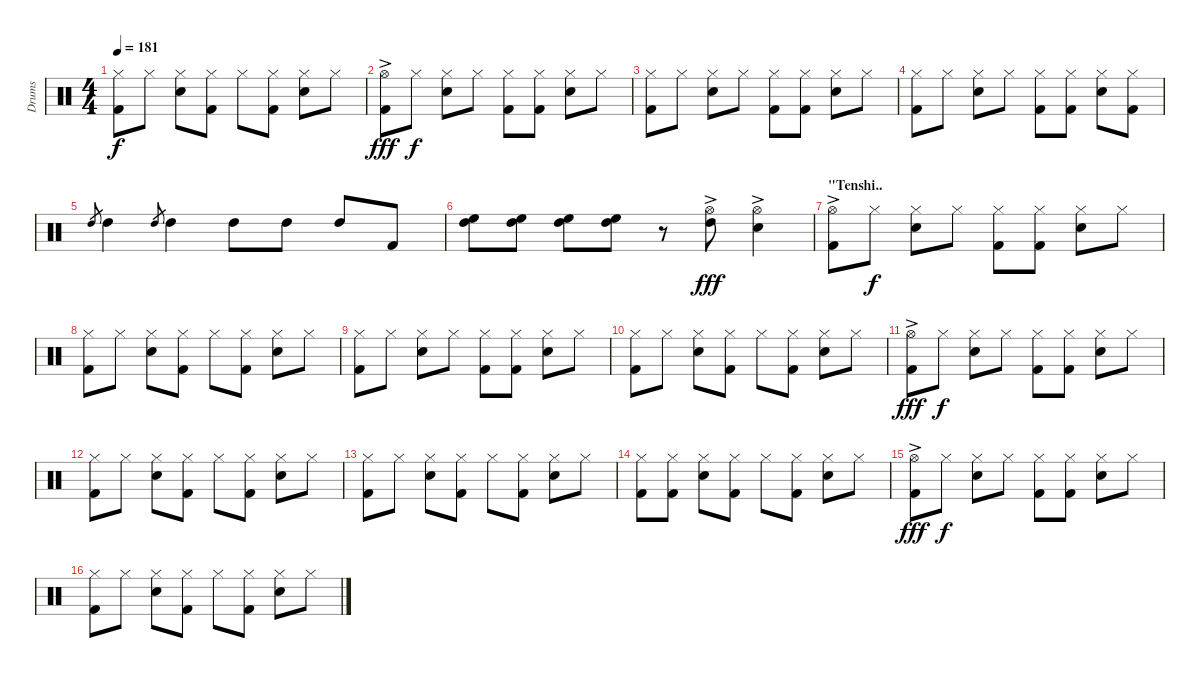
\track ("Drums" "Drums") {instrument percussion}
\staff {score}
\articulation defaults
\ts (4 4)
\tempo 181
\clef neutral
\ks c
("Hi-Hat (closed)" "Kick (hit) 2").8{dy f} "Hi-Hat (closed)".8 ("Hi-Hat (closed)" "Snare (hit) 2").8 ("Hi-Hat (closed)" "Kick (hit) 2").8 "Hi-Hat (closed)".8 ("Hi-Hat (closed)" "Kick (hit) 2").8 ("Hi-Hat (closed)" "Snare (hit) 2").8 "Hi-Hat (closed)".8 |
("Hi-Hat (open)"{ac} "Kick (hit) 2").8{dy fff} "Hi-Hat (closed)".8{dy f} ("Hi-Hat (closed)" "Snare (hit) 2").8 "Hi-Hat (closed)".8 ("Hi-Hat (closed)" "Kick (hit) 2").8 ("Hi-Hat (closed)" "Kick (hit) 2").8 ("Hi-Hat (closed)" "Snare (hit) 2").8 "Hi-Hat (closed)".8 |
("Hi-Hat (closed)" "Kick (hit) 2").8 "Hi-Hat (closed)".8 ("Hi-Hat (closed)" "Snare (hit) 2").8 "Hi-Hat (closed)".8 ("Hi-Hat (closed)" "Kick (hit) 2").8 ("Hi-Hat (closed)" "Kick (hit) 2").8 ("Hi-Hat (closed)" "Snare (hit) 2").8 "Hi-Hat (closed)".8 |
("Hi-Hat (closed)" "Kick (hit) 2").8 "Hi-Hat (closed)".8 ("Hi-Hat (closed)" "Snare (hit) 2").8 "Hi-Hat (closed)".8 ("Hi-Hat (closed)" "Kick (hit) 2").8 ("Hi-Hat (closed)" "Kick (hit) 2").8 ("Hi-Hat (closed)" "Snare (hit) 2").8 ("Hi-Hat (closed)" "Kick (hit) 2").8 |
"High Tom (hit)".8{gr} "High Tom (hit)".4 "High Tom (hit)".8{gr} "High Tom (hit)".4 "High Tom (hit)".8 "High Tom (hit)".8 "High Tom (hit)".8 "Kick (hit) 2".8 |
("High Floor Tom (hit)" "High Tom (hit)").8 ("High Floor Tom (hit)" "High Tom (hit)").8 ("High Floor Tom (hit)" "High Tom (hit)").8 ("High Floor Tom (hit)" "High Tom (hit)").8 r.8 ("Hi-Hat (open)"{ac} "High Tom (hit)").8{dy fff} ("Hi-Hat (open)"{ac} "Snare (hit) 2").4 |
\section ("" "\"Tenshi..")
("Hi-Hat (open)"{ac} "Kick (hit) 2").8 "Hi-Hat (closed)".8{dy f} ("Hi-Hat (closed)" "Snare (hit) 2").8 "Hi-Hat (closed)".8 ("Hi-Hat (closed)" "Kick (hit) 2").8 ("Hi-Hat (closed)" "Kick (hit) 2").8 ("Hi-Hat (closed)" "Snare (hit) 2").8 "Hi-Hat (closed)".8 |
("Hi-Hat (closed)" "Kick (hit) 2").8 "Hi-Hat (closed)".8 ("Hi-Hat (closed)" "Snare (hit) 2").8 ("Hi-Hat (closed)" "Kick (hit) 2").8 "Hi-Hat (closed)".8 ("Hi-Hat (closed)" "Kick (hit) 2").8 ("Hi-Hat (closed)" "Snare (hit) 2").8 "Hi-Hat (closed)".8 |
("Hi-Hat (closed)" "Kick (hit) 2").8 "Hi-Hat (closed)".8 ("Hi-Hat (closed)" "Snare (hit) 2").8 "Hi-Hat (closed)".8 ("Hi-Hat (closed)" "Kick (hit) 2").8 ("Hi-Hat (closed)" "Kick (hit) 2").8 ("Hi-Hat (closed)" "Snare (hit) 2").8 "Hi-Hat (closed)".8 |
("Hi-Hat (closed)" "Kick (hit) 2").8 "Hi-Hat (closed)".8 ("Hi-Hat (closed)" "Snare (hit) 2").8 ("Hi-Hat (closed)" "Kick (hit) 2").8 "Hi-Hat (closed)".8 ("Hi-Hat (closed)" "Kick (hit) 2").8 ("Hi-Hat (closed)" "Snare (hit) 2").8 "Hi-Hat (closed)".8 |
("Hi-Hat (open)"{ac} "Kick (hit) 2").8{dy fff} "Hi-Hat (closed)".8{dy f} ("Hi-Hat (closed)" "Snare (hit) 2").8 "Hi-Hat (closed)".8 ("Hi-Hat (closed)" "Kick (hit) 2").8 ("Hi-Hat (closed)" "Kick (hit) 2").8 ("Hi-Hat (closed)" "Snare (hit) 2").8 "Hi-Hat (closed)".8 |
("Hi-Hat (closed)" "Kick (hit) 2").8 "Hi-Hat (closed)".8 ("Hi-Hat (closed)" "Snare (hit) 2").8 ("Hi-Hat (closed)" "Kick (hit) 2").8 "Hi-Hat (closed)".8 ("Hi-Hat (closed)" "Kick (hit) 2").8 ("Hi-Hat (closed)" "Snare (hit) 2").8 "Hi-Hat (closed)".8 |
("Hi-Hat (closed)" "Kick (hit) 2").8 "Hi-Hat (closed)".8 ("Hi-Hat (closed)" "Snare (hit) 2").8 ("Hi-Hat (closed)" "Kick (hit) 2").8 "Hi-Hat (closed)".8 ("Hi-Hat (closed)" "Kick (hit) 2").8 ("Hi-Hat (closed)" "Snare (hit) 2").8 "Hi-Hat (closed)".8 |
("Hi-Hat (closed)" "Kick (hit) 2").8 ("Hi-Hat (closed)" "Kick (hit) 2").8 ("Hi-Hat (closed)" "Snare (hit) 2").8 ("Hi-Hat (closed)" "Kick (hit) 2").8 "Hi-Hat (closed)".8 ("Hi-Hat (closed)" "Kick (hit) 2").8 ("Hi-Hat (closed)" "Snare (hit) 2").8 "Hi-Hat (closed)".8 |
("Hi-Hat (open)"{ac} "Kick (hit) 2").8{dy fff} "Hi-Hat (closed)".8{dy f} ("Hi-Hat (closed)" "Snare (hit) 2").8 "Hi-Hat (closed)".8 ("Hi-Hat (closed)" "Kick (hit) 2").8 ("Hi-Hat (closed)" "Kick (hit) 2").8 ("Hi-Hat (closed)" "Snare (hit) 2").8 "Hi-Hat (closed)".8 |
("Hi-Hat (closed)" "Kick (hit) 2").8 "Hi-Hat (closed)".8 ("Hi-Hat (closed)" "Snare (hit) 2").8 ("Hi-Hat (closed)" "Kick (hit) 2").8 "Hi-Hat (closed)".8 ("Hi-Hat (closed)" "Kick (hit) 2").8 ("Hi-Hat (closed)" "Snare (hit) 2").8 "Hi-Hat (closed)".8
